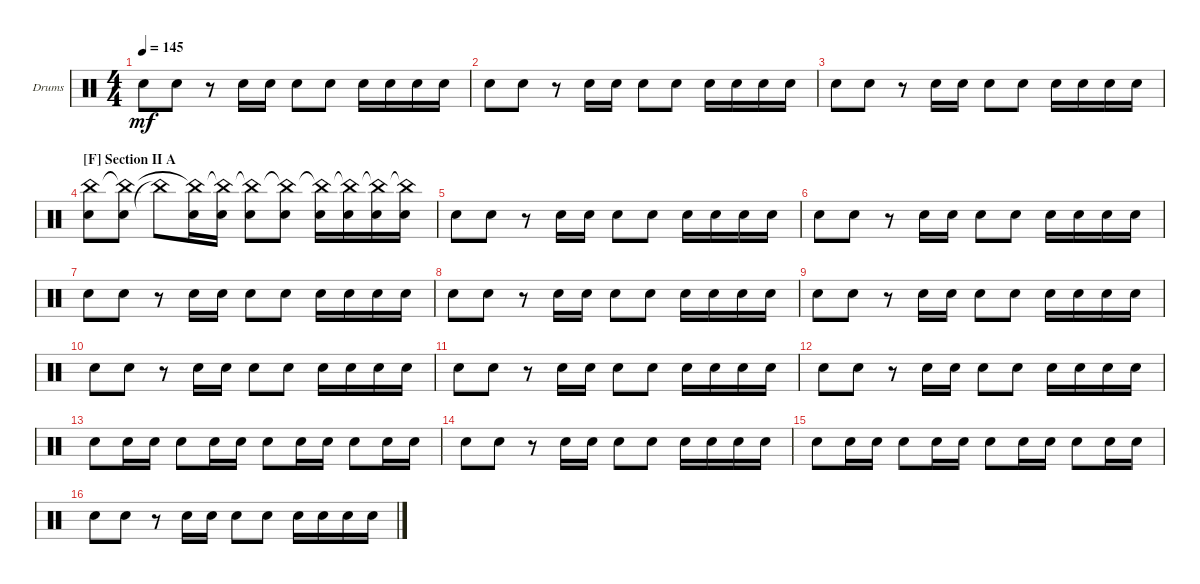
\defaultSystemsLayout 4
\bracketExtendMode groupsimilarinstruments
\firstSystemTrackNameOrientation horizontal
\otherSystemsTrackNameOrientation horizontal
\track ("Drumkit" "Drums") {instrument percussion}
\staff {score}
\articulation defaults
\ts (4 4)
\tempo 145
\clef neutral
\scale
0.333333
\ks c "Snare (hit) 2".8{dy mf} "Snare (hit) 2".8
r.8 "Snare (hit) 2".16 "Snare (hit) 2".16 "Snare (hit) 2".8 "Snare (hit) 2".8 "Snare (hit) 2".16 "Snare (hit) 2".16 "Snare (hit) 2".16 "Snare (hit) 2".16 |
\scale
0.333333 "Snare (hit) 2".8 "Snare (hit) 2".8 r.8 "Snare (hit) 2".16 "Snare (hit) 2".16 "Snare (hit) 2".8 "Snare (hit) 2".8 "Snare (hit) 2".16 "Snare (hit) 2".16 "Snare (hit) 2".16 "Snare (hit) 2".16 |
\scale
0.333333 "Snare (hit) 2".8 "Snare (hit) 2".8 r.8 "Snare (hit) 2".16 "Snare (hit) 2".16 "Snare (hit) 2".8 "Snare (hit) 2".8 "Snare (hit) 2".16 "Snare (hit) 2".16 "Snare (hit) 2".16 "Snare (hit) 2".16 |
\section ("F" "Section II A")
\scale
0.333333 ("Snare (hit) 2" "China (hit)").8 ("Snare (hit) 2" "China (hit)"{t}).8 "China (hit)"{t}.8 ("Snare (hit) 2" "China (hit)"{t}).16 ("Snare (hit) 2" "China (hit)"{t}).16 ("Snare (hit) 2" "China (hit)"{t}).8 ("Snare (hit) 2" "China (hit)"{t}).8 ("Snare (hit) 2" "China (hit)"{t}).16 ("Snare (hit) 2" "China (hit)"{t}).16 ("Snare (hit) 2" "China (hit)"{t}).16 ("Snare (hit) 2" "China (hit)"{t}).16 |
\scale
0.333333 "Snare (hit) 2".8 "Snare (hit) 2".8 r.8 "Snare (hit) 2".16 "Snare (hit) 2".16 "Snare (hit) 2".8 "Snare (hit) 2".8 "Snare (hit) 2".16 "Snare (hit) 2".16 "Snare (hit) 2".16 "Snare (hit) 2".16 |
\scale
0.333333 "Snare (hit) 2".8 "Snare (hit) 2".8 r.8 "Snare (hit) 2".16 "Snare (hit) 2".16 "Snare (hit) 2".8 "Snare (hit) 2".8 "Snare (hit) 2".16 "Snare (hit) 2".16 "Snare (hit) 2".16 "Snare (hit) 2".16 |
\scale
0.333333 "Snare (hit) 2".8 "Snare (hit) 2".8 r.8 "Snare (hit) 2".16 "Snare (hit) 2".16 "Snare (hit) 2".8 "Snare (hit) 2".8 "Snare (hit) 2".16 "Snare (hit) 2".16 "Snare (hit) 2".16 "Snare (hit) 2".16 |
\scale
0.333333 "Snare (hit) 2".8 "Snare (hit) 2".8 r.8 "Snare (hit) 2".16 "Snare (hit) 2".16 "Snare (hit) 2".8 "Snare (hit) 2".8 "Snare (hit) 2".16 "Snare (hit) 2".16 "Snare (hit) 2".16 "Snare (hit) 2".16 |
\scale
0.333333 "Snare (hit) 2".8 "Snare (hit) 2".8 r.8 "Snare (hit) 2".16 "Snare (hit) 2".16 "Snare (hit) 2".8 "Snare (hit) 2".8 "Snare (hit) 2".16 "Snare (hit) 2".16 "Snare (hit) 2".16 "Snare (hit) 2".16 |
\scale
0.333333 "Snare (hit) 2".8 "Snare (hit) 2".8 r.8 "Snare (hit) 2".16 "Snare (hit) 2".16 "Snare (hit) 2".8 "Snare (hit) 2".8 "Snare (hit) 2".16 "Snare (hit) 2".16 "Snare (hit) 2".16 "Snare (hit) 2".16 |
\scale
0.333333 "Snare (hit) 2".8 "Snare (hit) 2".8 r.8 "Snare (hit) 2".16 "Snare (hit) 2".16 "Snare (hit) 2".8 "Snare (hit) 2".8 "Snare (hit) 2".16 "Snare (hit) 2".16 "Snare (hit) 2".16 "Snare (hit) 2".16 |
\scale
0.333333 "Snare (hit) 2".8 "Snare (hit) 2".8 r.8 "Snare (hit) 2".16 "Snare (hit) 2".16 "Snare (hit) 2".8 "Snare (hit) 2".8 "Snare (hit) 2".16 "Snare (hit) 2".16 "Snare (hit) 2".16 "Snare (hit) 2".16 |
\scale
0.333333 "Snare (hit) 2".8 "Snare (hit) 2".16 "Snare (hit) 2".16 "Snare (hit) 2".8 "Snare (hit) 2".16 "Snare (hit) 2".16 "Snare (hit) 2".8 "Snare (hit) 2".16 "Snare (hit) 2".16 "Snare (hit) 2".8 "Snare (hit) 2".16 "Snare (hit) 2".16 |
\scale
0.333333 "Snare (hit) 2".8 "Snare (hit) 2".8 r.8 "Snare (hit) 2".16 "Snare (hit) 2".16 "Snare (hit) 2".8 "Snare (hit) 2".8 "Snare (hit) 2".16 "Snare (hit) 2".16 "Snare (hit) 2".16 "Snare (hit) 2".16 |
\scale
0.333333 "Snare (hit) 2".8 "Snare (hit) 2".16 "Snare (hit) 2".16 "Snare (hit) 2".8 "Snare (hit) 2".16 "Snare (hit) 2".16 "Snare (hit) 2".8 "Snare (hit) 2".16 "Snare (hit) 2".16 "Snare (hit) 2".8 "Snare (hit) 2".16 "Snare (hit) 2".16 |
\scale
0.333333 "Snare (hit) 2".8 "Snare (hit) 2".8 r.8 "Snare (hit) 2".16 "Snare (hit) 2".16 "Snare (hit) 2".8 "Snare (hit) 2".8 "Snare (hit) 2".16 "Snare (hit) 2".16 "Snare (hit) 2".16 "Snare (hit) 2".16
